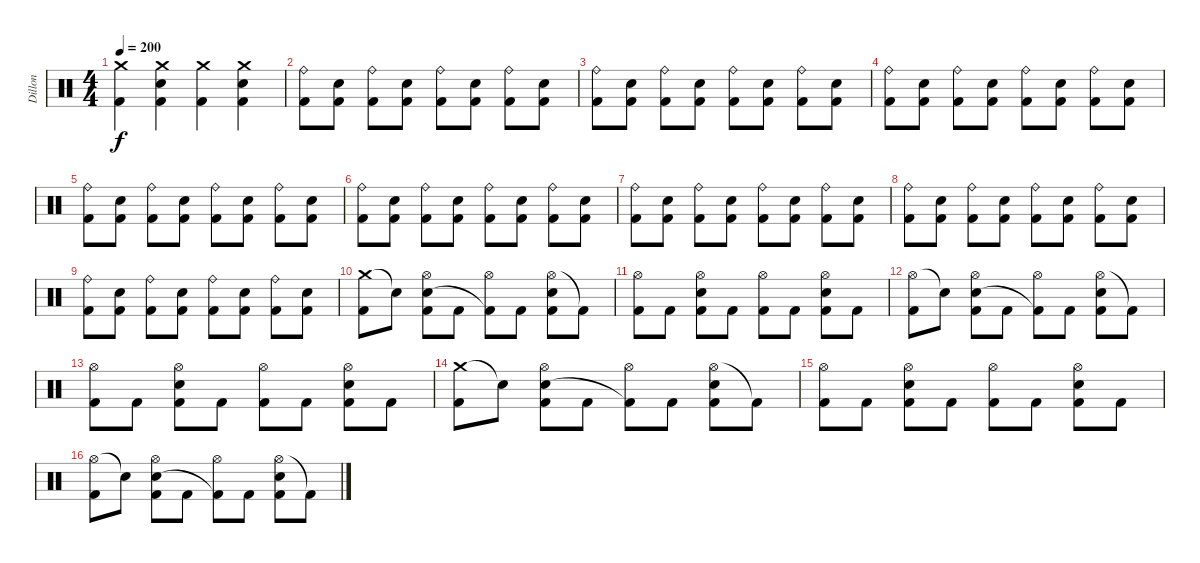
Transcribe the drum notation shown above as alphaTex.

\track ("Dillon" "Dillon") {instrument percussion}
\staff {score}
\articulation defaults
\ts (4 4)
\tempo 200
\clef neutral
\ks c
("Crash medium (hit)" "Kick (hit) 2").4{dy f} ("Crash medium (hit)" "Electric Snare (hit)" "Kick (hit) 2").4 ("Crash medium (hit)" "Kick (hit) 2").4 ("Crash medium (hit)" "Electric Snare (hit)" "Kick (hit) 2").4 |
("Ride (bell)" "Kick (hit) 2").8 ("Electric Snare (hit)" "Kick (hit) 2").8 ("Ride (bell)" "Kick (hit) 2").8 ("Electric Snare (hit)" "Kick (hit) 2").8 ("Ride (bell)" "Kick (hit) 2").8 ("Electric Snare (hit)" "Kick (hit) 2").8 ("Ride (bell)" "Kick (hit) 2").8 ("Electric Snare (hit)" "Kick (hit) 2").8 |
("Ride (bell)" "Kick (hit) 2").8 ("Electric Snare (hit)" "Kick (hit) 2").8 ("Ride (bell)" "Kick (hit) 2").8 ("Electric Snare (hit)" "Kick (hit) 2").8 ("Ride (bell)" "Kick (hit) 2").8 ("Electric Snare (hit)" "Kick (hit) 2").8 ("Ride (bell)" "Kick (hit) 2").8 ("Electric Snare (hit)" "Kick (hit) 2").8 |
("Ride (bell)" "Kick (hit) 2").8 ("Electric Snare (hit)" "Kick (hit) 2").8 ("Ride (bell)" "Kick (hit) 2").8 ("Electric Snare (hit)" "Kick (hit) 2").8 ("Ride (bell)" "Kick (hit) 2").8 ("Electric Snare (hit)" "Kick (hit) 2").8 ("Ride (bell)" "Kick (hit) 2").8 ("Electric Snare (hit)" "Kick (hit) 2").8 |
("Ride (bell)" "Kick (hit) 2").8 ("Electric Snare (hit)" "Kick (hit) 2").8 ("Ride (bell)" "Kick (hit) 2").8 ("Electric Snare (hit)" "Kick (hit) 2").8 ("Ride (bell)" "Kick (hit) 2").8 ("Electric Snare (hit)" "Kick (hit) 2").8 ("Ride (bell)" "Kick (hit) 2").8 ("Electric Snare (hit)" "Kick (hit) 2").8 |
("Ride (bell)" "Kick (hit) 2").8 ("Electric Snare (hit)" "Kick (hit) 2").8 ("Ride (bell)" "Kick (hit) 2").8 ("Electric Snare (hit)" "Kick (hit) 2").8 ("Ride (bell)" "Kick (hit) 2").8 ("Electric Snare (hit)" "Kick (hit) 2").8 ("Ride (bell)" "Kick (hit) 2").8 ("Electric Snare (hit)" "Kick (hit) 2").8 |
("Ride (bell)" "Kick (hit) 2").8 ("Electric Snare (hit)" "Kick (hit) 2").8 ("Ride (bell)" "Kick (hit) 2").8 ("Electric Snare (hit)" "Kick (hit) 2").8 ("Ride (bell)" "Kick (hit) 2").8 ("Electric Snare (hit)" "Kick (hit) 2").8 ("Ride (bell)" "Kick (hit) 2").8 ("Electric Snare (hit)" "Kick (hit) 2").8 |
("Ride (bell)" "Kick (hit) 2").8 ("Electric Snare (hit)" "Kick (hit) 2").8 ("Ride (bell)" "Kick (hit) 2").8 ("Electric Snare (hit)" "Kick (hit) 2").8 ("Ride (bell)" "Kick (hit) 2").8 ("Electric Snare (hit)" "Kick (hit) 2").8 ("Ride (bell)" "Kick (hit) 2").8 ("Electric Snare (hit)" "Kick (hit) 2").8 |
("Ride (bell)" "Kick (hit) 2").8 ("Electric Snare (hit)" "Kick (hit) 2").8 ("Ride (bell)" "Kick (hit) 2").8 ("Electric Snare (hit)" "Kick (hit) 2").8 ("Ride (bell)" "Kick (hit) 2").8 ("Electric Snare (hit)" "Kick (hit) 2").8 ("Ride (bell)" "Kick (hit) 2").8 ("Electric Snare (hit)" "Kick (hit) 2").8 |
("Crash medium (hit)" "Kick (hit) 2").8 "Snare (hit)"{t}.8 ("Hi-Hat (open)" "Electric Snare (hit)" "Kick (hit) 2").8 "Kick (hit) 2".8 ("Hi-Hat (open)" "Kick (hit) 2"{t}).8 "Kick (hit) 2".8 ("Hi-Hat (open)" "Electric Snare (hit)" "Kick (hit) 2").8 "Kick (hit) 2"{t}.8 |
("Hi-Hat (open)" "Kick (hit) 2").8 "Kick (hit) 2".8 ("Hi-Hat (open)" "Electric Snare (hit)" "Kick (hit) 2").8 "Kick (hit) 2".8 ("Hi-Hat (open)" "Kick (hit) 2").8 "Kick (hit) 2".8 ("Hi-Hat (open)" "Electric Snare (hit)" "Kick (hit) 2").8 "Kick (hit) 2".8 |
("Hi-Hat (open)" "Kick (hit) 2").8 "Snare (hit)"{t}.8 ("Hi-Hat (open)" "Electric Snare (hit)" "Kick (hit) 2").8 "Kick (hit) 2".8 ("Hi-Hat (open)" "Kick (hit) 2"{t}).8 "Kick (hit) 2".8 ("Hi-Hat (open)" "Electric Snare (hit)" "Kick (hit) 2").8 "Kick (hit) 2"{t}.8 |
("Hi-Hat (open)" "Kick (hit) 2").8 "Kick (hit) 2".8 ("Hi-Hat (open)" "Electric Snare (hit)" "Kick (hit) 2").8 "Kick (hit) 2".8 ("Hi-Hat (open)" "Kick (hit) 2").8 "Kick (hit) 2".8 ("Hi-Hat (open)" "Electric Snare (hit)" "Kick (hit) 2").8 "Kick (hit) 2".8 |
("Crash medium (hit)" "Kick (hit) 2").8 "Snare (hit)"{t}.8 ("Hi-Hat (open)" "Electric Snare (hit)" "Kick (hit) 2").8 "Kick (hit) 2".8 ("Hi-Hat (open)" "Kick (hit) 2"{t}).8 "Kick (hit) 2".8 ("Hi-Hat (open)" "Electric Snare (hit)" "Kick (hit) 2").8 "Kick (hit) 2"{t}.8 |
("Hi-Hat (open)" "Kick (hit) 2").8 "Kick (hit) 2".8 ("Hi-Hat (open)" "Electric Snare (hit)" "Kick (hit) 2").8 "Kick (hit) 2".8 ("Hi-Hat (open)" "Kick (hit) 2").8 "Kick (hit) 2".8 ("Hi-Hat (open)" "Electric Snare (hit)" "Kick (hit) 2").8 "Kick (hit) 2".8 |
("Hi-Hat (open)" "Kick (hit) 2").8 "Snare (hit)"{t}.8 ("Hi-Hat (open)" "Electric Snare (hit)" "Kick (hit) 2").8 "Kick (hit) 2".8 ("Hi-Hat (open)" "Kick (hit) 2"{t}).8 "Kick (hit) 2".8 ("Hi-Hat (open)" "Electric Snare (hit)" "Kick (hit) 2").8 "Kick (hit) 2"{t}.8
